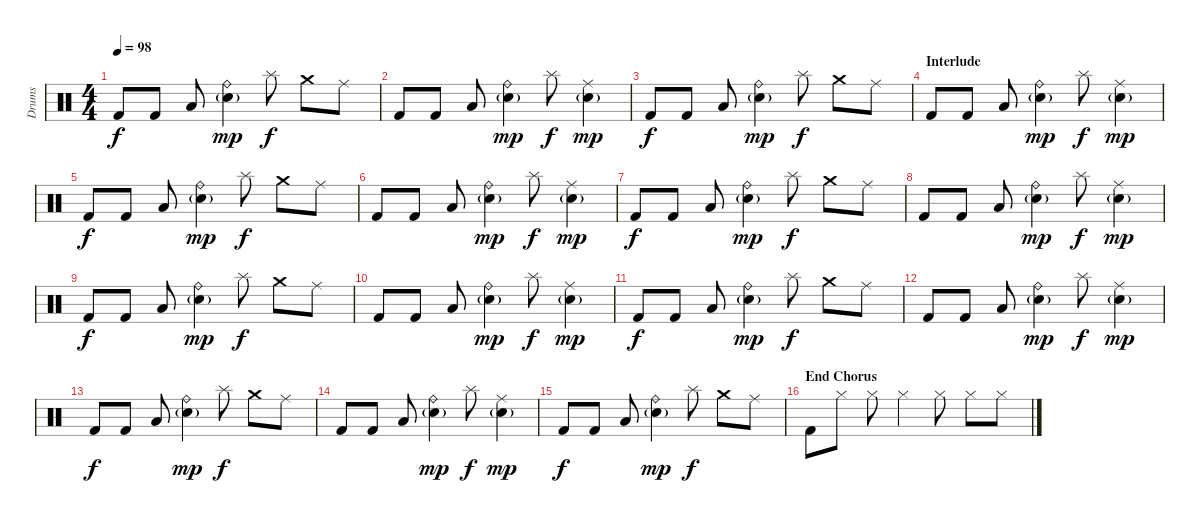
\track ("Drums" "Drums") {instrument percussion}
\staff {score}
\articulation defaults
\ts (4 4)
\tempo 98
\clef neutral
\ks c "Kick (hit) 2".8{dy f} "Kick (hit) 2".8 "Low Tom (hit)".8
("Ride (bell)" "Snare (hit) 2"{g}).4{dy mp} "Splash (hit)".8{dy f} "Crash medium (hit)".8 "Ride (middle)".8 |
"Kick (hit) 2".8 "Kick (hit) 2".8 "Low Tom (hit)".8 ("Ride (bell)" "Snare (hit) 2"{g}).4{dy mp} "Splash (hit)".8{dy f} ("Ride (middle)" "Snare (hit) 2"{g}).4{dy mp} |
"Kick (hit) 2".8{dy f} "Kick (hit) 2".8 "Low Tom (hit)".8 ("Ride (bell)" "Snare (hit) 2"{g}).4{dy mp} "Splash (hit)".8{dy f} "Crash medium (hit)".8 "Ride (middle)".8 |
\section ("" "Interlude")
"Kick (hit) 2".8 "Kick (hit) 2".8 "Low Tom (hit)".8 ("Ride (bell)" "Snare (hit) 2"{g}).4{dy mp} "Splash (hit)".8{dy f} ("Ride (middle)" "Snare (hit) 2"{g}).4{dy mp} |
"Kick (hit) 2".8{dy f} "Kick (hit) 2".8 "Low Tom (hit)".8 ("Ride (bell)" "Snare (hit) 2"{g}).4{dy mp} "Splash (hit)".8{dy f} "Crash medium (hit)".8 "Ride (middle)".8 |
"Kick (hit) 2".8 "Kick (hit) 2".8 "Low Tom (hit)".8 ("Ride (bell)" "Snare (hit) 2"{g}).4{dy mp} "Splash (hit)".8{dy f} ("Ride (middle)" "Snare (hit) 2"{g}).4{dy mp} |
"Kick (hit) 2".8{dy f} "Kick (hit) 2".8 "Low Tom (hit)".8 ("Ride (bell)" "Snare (hit) 2"{g}).4{dy mp} "Splash (hit)".8{dy f} "Crash medium (hit)".8 "Ride (middle)".8 |
"Kick (hit) 2".8 "Kick (hit) 2".8 "Low Tom (hit)".8 ("Ride (bell)" "Snare (hit) 2"{g}).4{dy mp} "Splash (hit)".8{dy f} ("Ride (middle)" "Snare (hit) 2"{g}).4{dy mp} |
"Kick (hit) 2".8{dy f} "Kick (hit) 2".8 "Low Tom (hit)".8 ("Ride (bell)" "Snare (hit) 2"{g}).4{dy mp} "Splash (hit)".8{dy f} "Crash medium (hit)".8 "Ride (middle)".8 |
"Kick (hit) 2".8 "Kick (hit) 2".8 "Low Tom (hit)".8 ("Ride (bell)" "Snare (hit) 2"{g}).4{dy mp} "Splash (hit)".8{dy f} ("Ride (middle)" "Snare (hit) 2"{g}).4{dy mp} |
"Kick (hit) 2".8{dy f} "Kick (hit) 2".8 "Low Tom (hit)".8 ("Ride (bell)" "Snare (hit) 2"{g}).4{dy mp} "Splash (hit)".8{dy f} "Crash medium (hit)".8 "Ride (middle)".8 |
"Kick (hit) 2".8 "Kick (hit) 2".8 "Low Tom (hit)".8 ("Ride (bell)" "Snare (hit) 2"{g}).4{dy mp} "Splash (hit)".8{dy f} ("Ride (middle)" "Snare (hit) 2"{g}).4{dy mp} |
"Kick (hit) 2".8{dy f} "Kick (hit) 2".8 "Low Tom (hit)".8 ("Ride (bell)" "Snare (hit) 2"{g}).4{dy mp} "Splash (hit)".8{dy f} "Crash medium (hit)".8 "Ride (middle)".8 |
"Kick (hit) 2".8 "Kick (hit) 2".8 "Low Tom (hit)".8 ("Ride (bell)" "Snare (hit) 2"{g}).4{dy mp} "Splash (hit)".8{dy f} ("Ride (middle)" "Snare (hit) 2"{g}).4{dy mp} |
"Kick (hit) 2".8{dy f} "Kick (hit) 2".8 "Low Tom (hit)".8 ("Ride (bell)" "Snare (hit) 2"{g}).4{dy mp} "Splash (hit)".8{dy f} "Crash medium (hit)".8 "Ride (middle)".8 |
\section ("" "End Chorus")
"Kick (hit) 2".8 "Hi-Hat (closed)".8 "Hi-Hat (closed)".8 "Hi-Hat (closed)".4 "Hi-Hat (closed)".8 "Hi-Hat (closed)".8 "Hi-Hat (closed)".8
